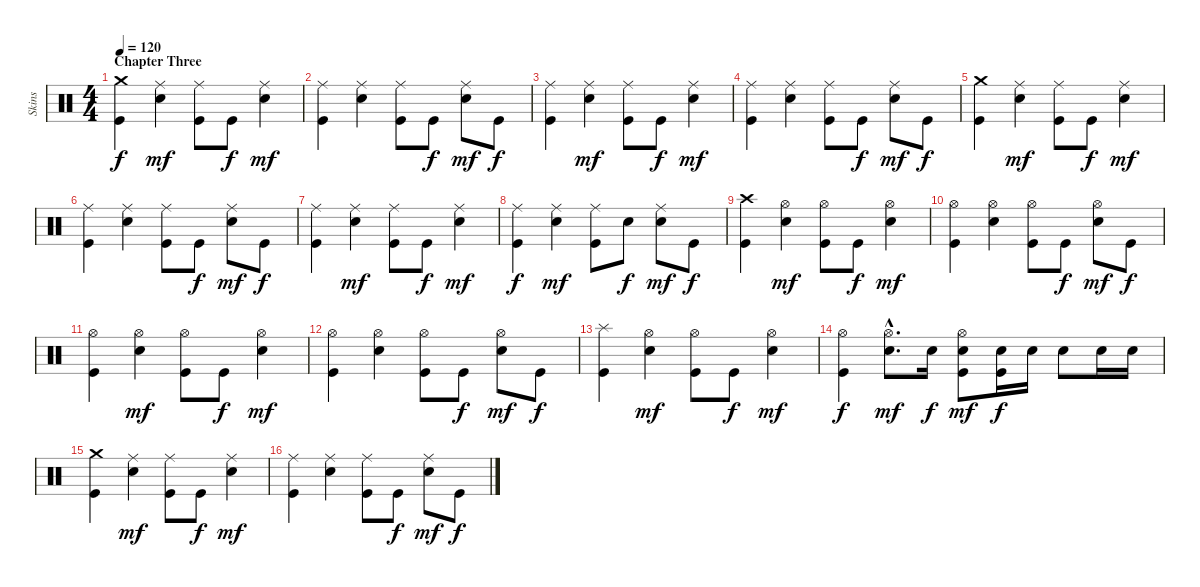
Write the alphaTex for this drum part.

\track ("Skins" "Skins") {instrument percussion}
\staff {score}
\articulation defaults
\ts (4 4)
\section ("" "Chapter Three")
\tempo 120
\clef neutral
\ks c
("Crash medium (hit)" "Kick (hit)").4{dy f} ("Ride (middle)" "Snare (hit) 2").4{dy mf} ("Ride (middle)" "Kick (hit)").8 "Kick (hit)".8{dy f} ("Ride (middle)" "Snare (hit) 2").4{dy mf} |
("Ride (middle)" "Kick (hit)").4 ("Ride (middle)" "Snare (hit) 2").4 ("Ride (middle)" "Kick (hit)").8 "Kick (hit)".8{dy f} ("Ride (middle)" "Snare (hit) 2").8{dy mf} "Kick (hit)".8{dy f} |
("Ride (middle)" "Kick (hit)").4 ("Ride (middle)" "Snare (hit) 2").4{dy mf} ("Ride (middle)" "Kick (hit)").8 "Kick (hit)".8{dy f} ("Ride (middle)" "Snare (hit) 2").4{dy mf} |
("Ride (middle)" "Kick (hit)").4 ("Ride (middle)" "Snare (hit) 2").4 ("Ride (middle)" "Kick (hit)").8 "Kick (hit)".8{dy f} ("Ride (middle)" "Snare (hit) 2").8{dy mf} "Kick (hit)".8{dy f} |
("Crash medium (hit)" "Kick (hit)").4 ("Ride (middle)" "Snare (hit) 2").4{dy mf} ("Ride (middle)" "Kick (hit)").8 "Kick (hit)".8{dy f} ("Ride (middle)" "Snare (hit) 2").4{dy mf} |
("Ride (middle)" "Kick (hit)").4 ("Ride (middle)" "Snare (hit) 2").4 ("Ride (middle)" "Kick (hit)").8 "Kick (hit)".8{dy f} ("Ride (middle)" "Snare (hit) 2").8{dy mf} "Kick (hit)".8{dy f} |
("Ride (middle)" "Kick (hit)").4 ("Ride (middle)" "Snare (hit) 2").4{dy mf} ("Ride (middle)" "Kick (hit)").8 "Kick (hit)".8{dy f} ("Ride (middle)" "Snare (hit) 2").4{dy mf} |
("Ride (middle)" "Kick (hit)").4{dy f} ("Ride (middle)" "Snare (hit) 2").4{dy mf} ("Ride (middle)" "Kick (hit)").8 "Snare (hit) 2".8{dy f} ("Ride (middle)" "Snare (hit) 2").8{dy mf} "Kick (hit)".8{dy f} |
("Crash high (hit)" "Kick (hit)").4 ("Hi-Hat (open)" "Snare (hit) 2").4{dy mf} ("Hi-Hat (open)" "Kick (hit)").8 "Kick (hit)".8{dy f} ("Hi-Hat (open)" "Snare (hit) 2").4{dy mf} |
("Hi-Hat (open)" "Kick (hit)").4 ("Hi-Hat (open)" "Snare (hit) 2").4 ("Hi-Hat (open)" "Kick (hit)").8 "Kick (hit)".8{dy f} ("Hi-Hat (open)" "Snare (hit) 2").8{dy mf} "Kick (hit)".8{dy f} |
("Hi-Hat (open)" "Kick (hit)").4 ("Hi-Hat (open)" "Snare (hit) 2").4{dy mf} ("Hi-Hat (open)" "Kick (hit)").8 "Kick (hit)".8{dy f} ("Hi-Hat (open)" "Snare (hit) 2").4{dy mf} |
("Hi-Hat (open)" "Kick (hit)").4 ("Hi-Hat (open)" "Snare (hit) 2").4 ("Hi-Hat (open)" "Kick (hit)").8 "Kick (hit)".8{dy f} ("Hi-Hat (open)" "Snare (hit) 2").8{dy mf} "Kick (hit)".8{dy f} |
("Splash (hit)" "Kick (hit)").4 ("Hi-Hat (open)" "Snare (hit) 2").4{dy mf} ("Hi-Hat (open)" "Kick (hit)").8 "Kick (hit)".8{dy f} ("Hi-Hat (open)" "Snare (hit) 2").4{dy mf} |
("Hi-Hat (open)" "Kick (hit)").4{dy f} ("Hi-Hat (open)"{hac} "Snare (hit) 2"{hac}).8{d dy mf} "Snare (hit) 2".16{dy f} ("Hi-Hat (open)" "Snare (hit) 2" "Kick (hit)").8{dy mf} ("Snare (hit) 2" "Kick (hit)").16{dy f} "Snare (hit) 2".16 "Snare (hit) 2".8 "Snare (hit) 2".16 "Snare (hit) 2".16 |
("Crash medium (hit)" "Kick (hit)").4 ("Ride (middle)" "Snare (hit) 2").4{dy mf} ("Ride (middle)" "Kick (hit)").8 "Kick (hit)".8{dy f} ("Ride (middle)" "Snare (hit) 2").4{dy mf} |
("Ride (middle)" "Kick (hit)").4 ("Ride (middle)" "Snare (hit) 2").4 ("Ride (middle)" "Kick (hit)").8 "Kick (hit)".8{dy f} ("Ride (middle)" "Snare (hit) 2").8{dy mf} "Kick (hit)".8{dy f}
